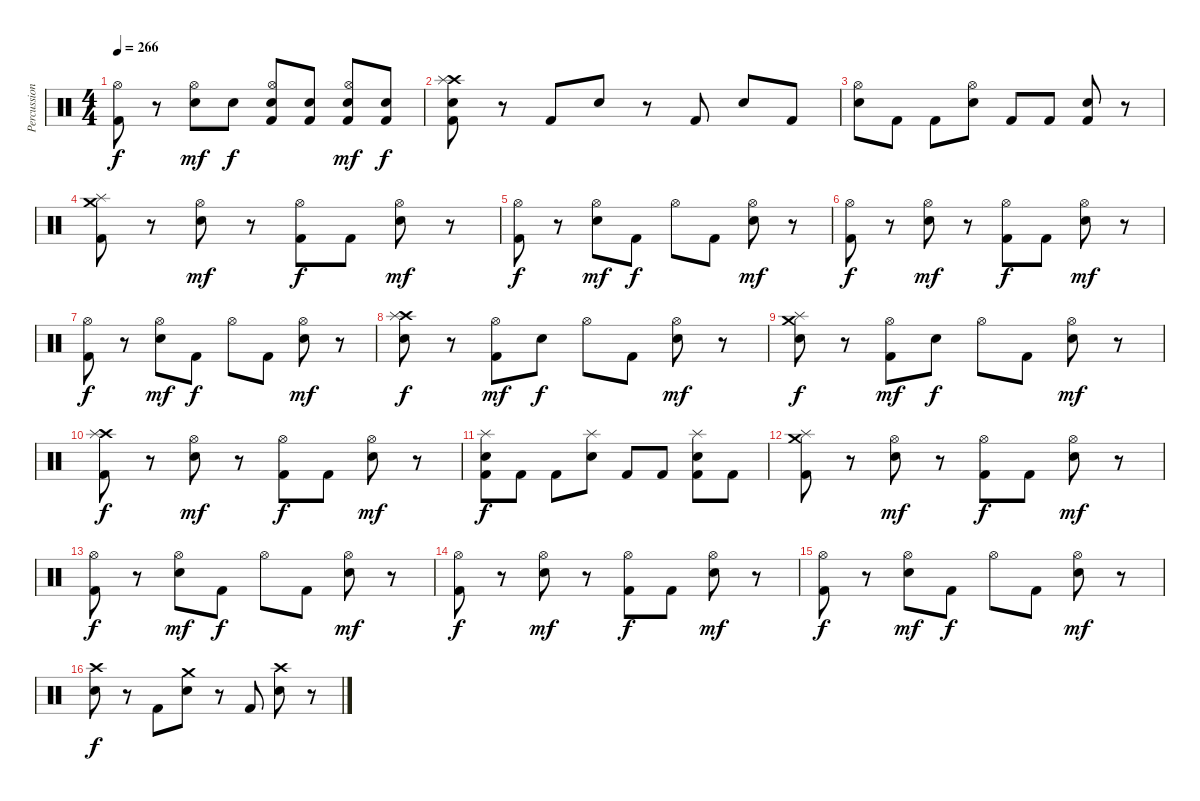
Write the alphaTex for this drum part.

\track ("Percussion" "Percussion") {instrument percussion}
\staff {score}
\articulation defaults
\ts (4 4)
\tempo 266
\clef neutral
\ks c
("Kick (hit) 2" "Hi-Hat (open)").8{dy f} r.8 ("Snare (hit) 2" "Hi-Hat (open)").8{dy mf} "Snare (hit) 2".8{dy f} ("Snare (hit) 2" "Kick (hit) 2" "Hi-Hat (open)").8 ("Snare (hit) 2" "Kick (hit) 2").8 ("Kick (hit) 2" "Snare (hit) 2" "Hi-Hat (open)").8{dy mf} ("Snare (hit) 2" "Kick (hit) 2").8{dy f} |
("Snare (hit) 2" "Crash high (hit)" "Splash (hit)" "Kick (hit) 2").8 r.8 "Kick (hit) 2".8 "Snare (hit) 2".8 r.8 "Kick (hit) 2".8 "Snare (hit) 2".8 "Kick (hit) 2".8 |
("Snare (hit) 2" "Hi-Hat (open)").8 "Kick (hit) 2".8 "Kick (hit) 2".8 ("Snare (hit) 2" "Hi-Hat (open)").8 "Kick (hit) 2".8 "Kick (hit) 2".8 ("Kick (hit) 2" "Snare (hit) 2").8 r.8 |
("Crash medium (hit)" "Splash (hit)" "Kick (hit) 2").8 r.8 ("Snare (hit) 2" "Hi-Hat (open)").8{dy mf} r.8 ("Kick (hit) 2" "Hi-Hat (open)").8{dy f} "Kick (hit) 2".8 ("Snare (hit) 2" "Hi-Hat (open)").8{dy mf} r.8 |
("Kick (hit) 2" "Hi-Hat (open)").8{dy f} r.8 ("Snare (hit) 2" "Hi-Hat (open)").8{dy mf} "Kick (hit) 2".8{dy f} "Hi-Hat (open)".8 "Kick (hit) 2".8 ("Snare (hit) 2" "Hi-Hat (open)").8{dy mf} r.8 |
("Hi-Hat (open)" "Kick (hit) 2").8{dy f} r.8 ("Snare (hit) 2" "Hi-Hat (open)").8{dy mf} r.8 ("Kick (hit) 2" "Hi-Hat (open)").8{dy f} "Kick (hit) 2".8 ("Snare (hit) 2" "Hi-Hat (open)").8{dy mf} r.8 |
("Kick (hit) 2" "Hi-Hat (open)").8{dy f} r.8 ("Snare (hit) 2" "Hi-Hat (open)").8{dy mf} "Kick (hit) 2".8{dy f} "Hi-Hat (open)".8 "Kick (hit) 2".8 ("Snare (hit) 2" "Hi-Hat (open)").8{dy mf} r.8 |
("Snare (hit) 2" "Crash high (hit)" "Splash (hit)").8{dy f} r.8 ("Kick (hit) 2" "Hi-Hat (open)").8{dy mf} "Snare (hit) 2".8{dy f} "Hi-Hat (open)".8 "Kick (hit) 2".8 ("Snare (hit) 2" "Hi-Hat (open)").8{dy mf} r.8 |
("Snare (hit) 2" "Splash (hit)" "Crash medium (hit)").8{dy f} r.8 ("Kick (hit) 2" "Hi-Hat (open)").8{dy mf} "Snare (hit) 2".8{dy f} "Hi-Hat (open)".8 "Kick (hit) 2".8 ("Snare (hit) 2" "Hi-Hat (open)").8{dy mf} r.8 |
("Crash high (hit)" "Splash (hit)" "Kick (hit) 2").8{dy f} r.8 ("Snare (hit) 2" "Hi-Hat (open)").8{dy mf} r.8 ("Kick (hit) 2" "Hi-Hat (open)").8{dy f} "Kick (hit) 2".8 ("Snare (hit) 2" "Hi-Hat (open)").8{dy mf} r.8 |
("Snare (hit) 2" "Kick (hit) 2" "Splash (hit)").8{dy f} "Kick (hit) 2".8 "Kick (hit) 2".8 ("Snare (hit) 2" "Splash (hit)").8 "Kick (hit) 2".8 "Kick (hit) 2".8 ("Snare (hit) 2" "Kick (hit) 2" "Splash (hit)").8 "Kick (hit) 2".8 |
("Crash medium (hit)" "Splash (hit)" "Kick (hit) 2").8 r.8 ("Snare (hit) 2" "Hi-Hat (open)").8{dy mf} r.8 ("Kick (hit) 2" "Hi-Hat (open)").8{dy f} "Kick (hit) 2".8 ("Snare (hit) 2" "Hi-Hat (open)").8{dy mf} r.8 |
("Kick (hit) 2" "Hi-Hat (open)").8{dy f} r.8 ("Snare (hit) 2" "Hi-Hat (open)").8{dy mf} "Kick (hit) 2".8{dy f} "Hi-Hat (open)".8 "Kick (hit) 2".8 ("Snare (hit) 2" "Hi-Hat (open)").8{dy mf} r.8 |
("Hi-Hat (open)" "Kick (hit) 2").8{dy f} r.8 ("Snare (hit) 2" "Hi-Hat (open)").8{dy mf} r.8 ("Kick (hit) 2" "Hi-Hat (open)").8{dy f} "Kick (hit) 2".8 ("Snare (hit) 2" "Hi-Hat (open)").8{dy mf} r.8 |
("Kick (hit) 2" "Hi-Hat (open)").8{dy f} r.8 ("Snare (hit) 2" "Hi-Hat (open)").8{dy mf} "Kick (hit) 2".8{dy f} "Hi-Hat (open)".8 "Kick (hit) 2".8 ("Snare (hit) 2" "Hi-Hat (open)").8{dy mf} r.8 |
("Crash high (hit)" "Snare (hit) 2").8{dy f} r.8 "Kick (hit) 2".8 ("Crash medium (hit)" "Snare (hit) 2").8 r.8 "Kick (hit) 2".8 ("Crash high (hit)" "Snare (hit) 2").8 r.8
